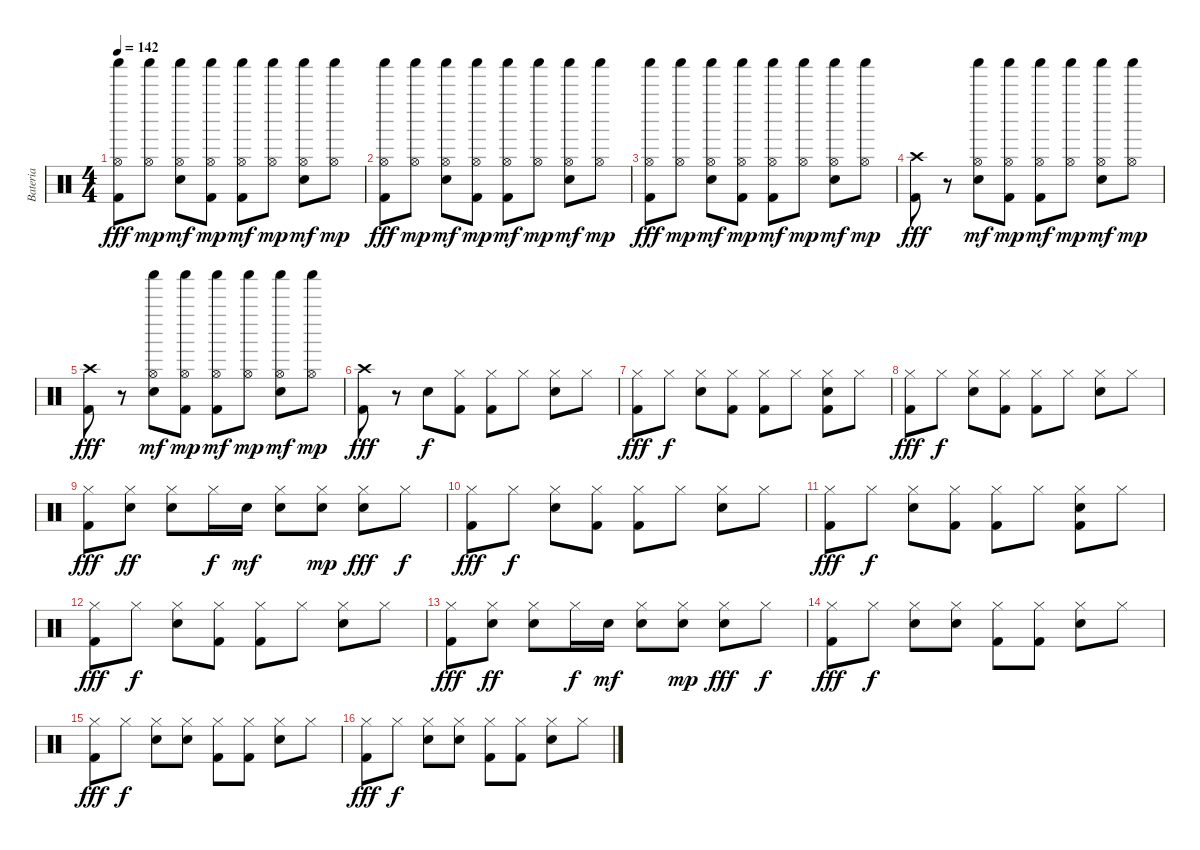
\track ("Bateria" "Bateria") {instrument percussion}
\staff {score}
\articulation defaults
\ts (4 4)
\tempo 142
\clef neutral
\ks c
("Shaker (hit)" "Hi-Hat (open)" "Kick (hit) 2").8{dy fff} ("Shaker (hit)" "Hi-Hat (open)").8{dy mp} ("Shaker (hit)" "Hi-Hat (open)" "Electric Snare (hit)").8{dy mf} ("Shaker (hit)" "Hi-Hat (open)" "Kick (hit) 2").8{dy mp} ("Shaker (hit)" "Hi-Hat (open)" "Kick (hit) 2").8{dy mf} ("Shaker (hit)" "Hi-Hat (open)").8{dy mp} ("Shaker (hit)" "Hi-Hat (open)" "Electric Snare (hit)").8{dy mf} ("Shaker (hit)" "Hi-Hat (open)").8{dy mp} |
("Shaker (hit)" "Hi-Hat (open)" "Kick (hit) 2").8{dy fff} ("Shaker (hit)" "Hi-Hat (open)").8{dy mp} ("Shaker (hit)" "Hi-Hat (open)" "Electric Snare (hit)").8{dy mf} ("Shaker (hit)" "Hi-Hat (open)" "Kick (hit) 2").8{dy mp} ("Shaker (hit)" "Hi-Hat (open)" "Kick (hit) 2").8{dy mf} ("Shaker (hit)" "Hi-Hat (open)").8{dy mp} ("Shaker (hit)" "Hi-Hat (open)" "Electric Snare (hit)").8{dy mf} ("Shaker (hit)" "Hi-Hat (open)").8{dy mp} |
("Shaker (hit)" "Hi-Hat (open)" "Kick (hit) 2").8{dy fff} ("Shaker (hit)" "Hi-Hat (open)").8{dy mp} ("Shaker (hit)" "Hi-Hat (open)" "Electric Snare (hit)").8{dy mf} ("Shaker (hit)" "Hi-Hat (open)" "Kick (hit) 2").8{dy mp} ("Shaker (hit)" "Hi-Hat (open)" "Kick (hit) 2").8{dy mf} ("Shaker (hit)" "Hi-Hat (open)").8{dy mp} ("Shaker (hit)" "Hi-Hat (open)" "Electric Snare (hit)").8{dy mf} ("Shaker (hit)" "Hi-Hat (open)").8{dy mp} |
("Crash high (hit)" "Kick (hit) 2").8{dy fff} r.8 ("Shaker (hit)" "Hi-Hat (open)" "Electric Snare (hit)").8{dy mf} ("Shaker (hit)" "Hi-Hat (open)" "Kick (hit) 2").8{dy mp} ("Shaker (hit)" "Hi-Hat (open)" "Kick (hit) 2").8{dy mf} ("Shaker (hit)" "Hi-Hat (open)").8{dy mp} ("Shaker (hit)" "Hi-Hat (open)" "Electric Snare (hit)").8{dy mf} ("Shaker (hit)" "Hi-Hat (open)").8{dy mp} |
("Crash high (hit)" "Kick (hit) 2").8{dy fff} r.8 ("Shaker (hit)" "Hi-Hat (open)" "Electric Snare (hit)").8{dy mf} ("Shaker (hit)" "Hi-Hat (open)" "Kick (hit) 2").8{dy mp} ("Shaker (hit)" "Hi-Hat (open)" "Kick (hit) 2").8{dy mf} ("Shaker (hit)" "Hi-Hat (open)").8{dy mp} ("Shaker (hit)" "Hi-Hat (open)" "Electric Snare (hit)").8{dy mf} ("Shaker (hit)" "Hi-Hat (open)").8{dy mp} |
("Crash high (hit)" "Kick (hit) 2").8{dy fff} r.8 "Electric Snare (hit)".8{dy f} ("Hi-Hat (closed)" "Kick (hit) 2").8 ("Hi-Hat (closed)" "Kick (hit) 2").8 "Hi-Hat (closed)".8 ("Hi-Hat (closed)" "Electric Snare (hit)").8 "Hi-Hat (closed)".8 |
("Hi-Hat (closed)" "Kick (hit) 2").8{dy fff} "Hi-Hat (closed)".8{dy f} ("Hi-Hat (closed)" "Electric Snare (hit)").8 ("Hi-Hat (closed)" "Kick (hit) 2").8 ("Hi-Hat (closed)" "Kick (hit) 2").8 "Hi-Hat (closed)".8 ("Hi-Hat (closed)" "Electric Snare (hit)" "Kick (hit) 2").8 "Hi-Hat (closed)".8 |
("Hi-Hat (closed)" "Kick (hit) 2").8{dy fff} "Hi-Hat (closed)".8{dy f} ("Hi-Hat (closed)" "Electric Snare (hit)").8 ("Hi-Hat (closed)" "Kick (hit) 2").8 ("Hi-Hat (closed)" "Kick (hit) 2").8 "Hi-Hat (closed)".8 ("Hi-Hat (closed)" "Electric Snare (hit)").8 "Hi-Hat (closed)".8 |
("Hi-Hat (closed)" "Kick (hit) 2").8{dy fff} ("Hi-Hat (closed)" "Electric Snare (hit)").8{dy ff} ("Hi-Hat (closed)" "Electric Snare (hit)").8 "Hi-Hat (closed)".16{dy f} "Electric Snare (hit)".16{dy mf} ("Hi-Hat (closed)" "Electric Snare (hit)").8 ("Hi-Hat (closed)" "Electric Snare (hit)").8{dy mp} ("Hi-Hat (closed)" "Electric Snare (hit)").8{dy fff} "Hi-Hat (closed)".8{dy f} |
("Hi-Hat (closed)" "Kick (hit) 2").8{dy fff} "Hi-Hat (closed)".8{dy f} ("Hi-Hat (closed)" "Electric Snare (hit)").8 ("Hi-Hat (closed)" "Kick (hit) 2").8 ("Hi-Hat (closed)" "Kick (hit) 2").8 "Hi-Hat (closed)".8 ("Hi-Hat (closed)" "Electric Snare (hit)").8 "Hi-Hat (closed)".8 |
("Hi-Hat (closed)" "Kick (hit) 2").8{dy fff} "Hi-Hat (closed)".8{dy f} ("Hi-Hat (closed)" "Electric Snare (hit)").8 ("Hi-Hat (closed)" "Kick (hit) 2").8 ("Hi-Hat (closed)" "Kick (hit) 2").8 "Hi-Hat (closed)".8 ("Hi-Hat (closed)" "Electric Snare (hit)" "Kick (hit) 2").8 "Hi-Hat (closed)".8 |
("Hi-Hat (closed)" "Kick (hit) 2").8{dy fff} "Hi-Hat (closed)".8{dy f} ("Hi-Hat (closed)" "Electric Snare (hit)").8 ("Hi-Hat (closed)" "Kick (hit) 2").8 ("Hi-Hat (closed)" "Kick (hit) 2").8 "Hi-Hat (closed)".8 ("Hi-Hat (closed)" "Electric Snare (hit)").8 "Hi-Hat (closed)".8 |
("Hi-Hat (closed)" "Kick (hit) 2").8{dy fff} ("Hi-Hat (closed)" "Electric Snare (hit)").8{dy ff} ("Hi-Hat (closed)" "Electric Snare (hit)").8 "Hi-Hat (closed)".16{dy f} "Electric Snare (hit)".16{dy mf} ("Hi-Hat (closed)" "Electric Snare (hit)").8 ("Hi-Hat (closed)" "Electric Snare (hit)").8{dy mp} ("Hi-Hat (closed)" "Electric Snare (hit)").8{dy fff} "Hi-Hat (closed)".8{dy f} |
("Hi-Hat (closed)" "Kick (hit) 2").8{dy fff} "Hi-Hat (closed)".8{dy f} ("Hi-Hat (closed)" "Electric Snare (hit)").8 ("Hi-Hat (closed)" "Electric Snare (hit)").8 ("Hi-Hat (closed)" "Kick (hit) 2").8 ("Hi-Hat (closed)" "Kick (hit) 2").8 ("Hi-Hat (closed)" "Electric Snare (hit)").8 "Hi-Hat (closed)".8 |
("Hi-Hat (closed)" "Kick (hit) 2").8{dy fff} "Hi-Hat (closed)".8{dy f} ("Hi-Hat (closed)" "Electric Snare (hit)").8 ("Hi-Hat (closed)" "Electric Snare (hit)").8 ("Hi-Hat (closed)" "Kick (hit) 2").8 ("Hi-Hat (closed)" "Kick (hit) 2").8 ("Hi-Hat (closed)" "Electric Snare (hit)").8 "Hi-Hat (closed)".8 |
("Hi-Hat (closed)" "Kick (hit) 2").8{dy fff} "Hi-Hat (closed)".8{dy f} ("Hi-Hat (closed)" "Electric Snare (hit)").8 ("Hi-Hat (closed)" "Electric Snare (hit)").8 ("Hi-Hat (closed)" "Kick (hit) 2").8 ("Hi-Hat (closed)" "Kick (hit) 2").8 ("Hi-Hat (closed)" "Electric Snare (hit)").8 "Hi-Hat (closed)".8
